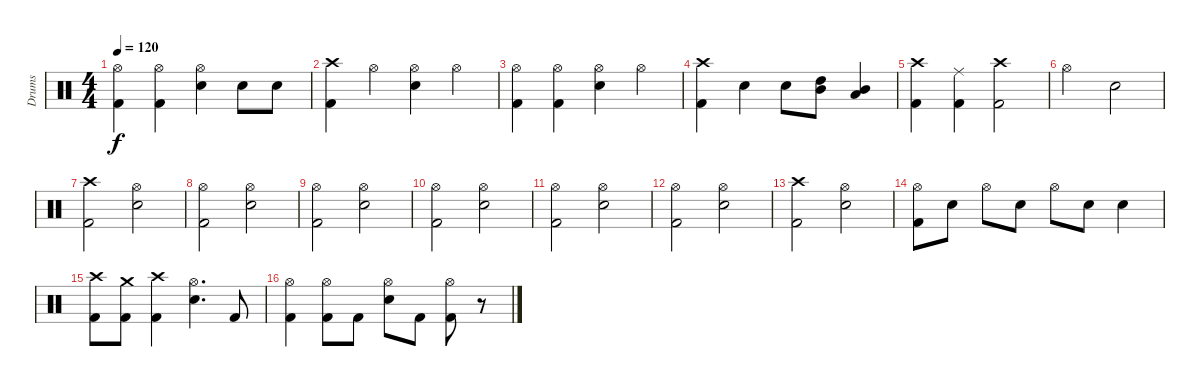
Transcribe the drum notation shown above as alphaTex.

\track ("Drums" "Drums") {instrument percussion}
\staff {score}
\articulation defaults
\ts (4 4)
\tempo 120
\clef neutral
\ks c
("Hi-Hat (open)" "Kick (hit) 2").4{dy f} ("Hi-Hat (open)" "Kick (hit) 2").4 ("Hi-Hat (open)" "Snare (hit) 2").4 "Snare (hit) 2".8 "Snare (hit) 2".8 |
("Crash high (hit)" "Kick (hit) 2").4 "Hi-Hat (open)".4 ("Hi-Hat (open)" "Snare (hit) 2").4 "Hi-Hat (open)".4 |
("Hi-Hat (open)" "Kick (hit) 2").4 ("Hi-Hat (open)" "Kick (hit) 2").4 ("Hi-Hat (open)" "Snare (hit) 2").4 "Hi-Hat (open)".4 |
("Crash high (hit)" "Kick (hit) 2").4 "Snare (hit) 2".4 "Snare (hit) 2".8 ("Mid Tom (hit)" "High Tom (hit)").8 ("Low Tom (hit)" "Mid Tom (hit)").4 |
("Kick (hit) 2" "Crash high (hit)").4 ("Kick (hit) 2" "Ride (middle)").4 ("Kick (hit) 2" "Crash high (hit)").2 |
"Hi-Hat (open)".2 "Snare (hit) 2".2 |
("Kick (hit) 2" "Crash high (hit)").2 ("Hi-Hat (open)" "Snare (hit) 2").2 |
("Hi-Hat (open)" "Kick (hit) 2").2 ("Hi-Hat (open)" "Snare (hit) 2").2 |
("Hi-Hat (open)" "Kick (hit) 2").2 ("Hi-Hat (open)" "Snare (hit) 2").2 |
("Hi-Hat (open)" "Kick (hit) 2").2 ("Hi-Hat (open)" "Snare (hit) 2").2 |
("Hi-Hat (open)" "Kick (hit) 2").2 ("Hi-Hat (open)" "Snare (hit) 2").2 |
("Hi-Hat (open)" "Kick (hit) 2").2 ("Hi-Hat (open)" "Snare (hit) 2").2 |
("Crash high (hit)" "Kick (hit) 2").2 ("Hi-Hat (open)" "Snare (hit) 2").2 |
("Hi-Hat (open)" "Kick (hit) 2").8 "Snare (hit) 2".8 "Hi-Hat (open)".8 "Snare (hit) 2".8 "Hi-Hat (open)".8 "Snare (hit) 2".8 "Snare (hit) 2".4 |
("Crash high (hit)" "Kick (hit) 2").8 ("Crash medium (hit)" "Kick (hit) 2").8 ("Crash high (hit)" "Kick (hit) 2").4 ("Hi-Hat (open)" "Snare (hit) 2").4{d} "Kick (hit) 2".8 |
("Hi-Hat (open)" "Kick (hit) 2").4 ("Hi-Hat (open)" "Kick (hit) 2").8 "Kick (hit) 2".8 ("Hi-Hat (open)" "Snare (hit) 2").8 "Kick (hit) 2".8 ("Hi-Hat (open)" "Kick (hit) 2").8 r.8
